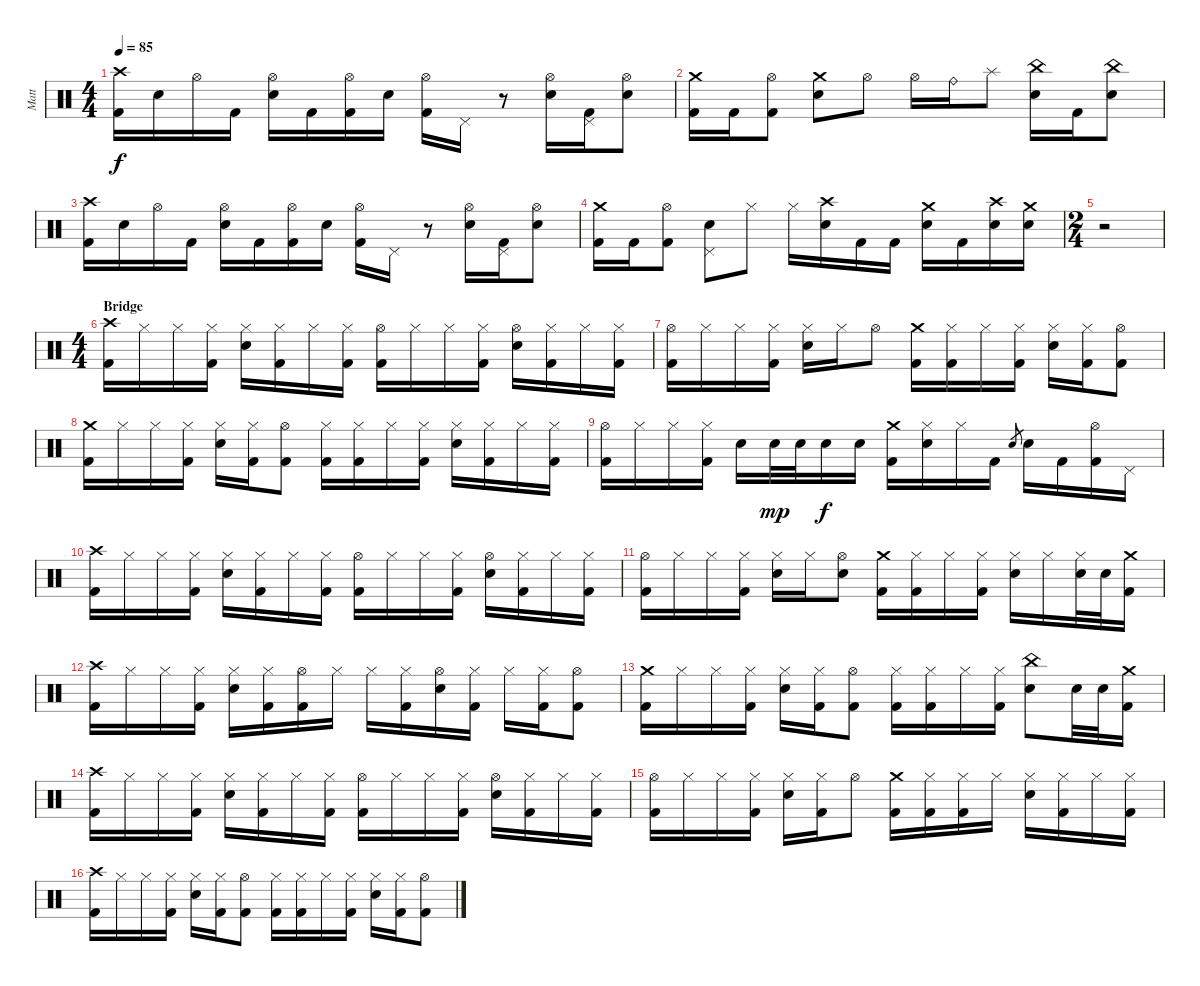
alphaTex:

\track ("Matt" "Matt") {instrument percussion}
\staff {score}
\articulation defaults
\ts (4 4)
\tempo 85
\clef neutral
\ks c
("Crash high (hit)" "Kick (hit) 2").16{dy f} "Electric Snare (hit)".16 "Hi-Hat (open)".16 "Kick (hit) 2".16 ("Hi-Hat (open)" "Electric Snare (hit)").16 "Kick (hit) 2".16 ("Hi-Hat (open)" "Kick (hit) 2").16 "Electric Snare (hit)".16 ("Hi-Hat (open)" "Kick (hit) 2").16 "Pedal Hi-Hat (hit)".16 r.8 ("Hi-Hat (open)" "Electric Snare (hit)").16 ("Pedal Hi-Hat (hit)" "Kick (hit) 2").16 ("Hi-Hat (open)" "Electric Snare (hit)").8 |
("Crash medium (hit)" "Kick (hit) 2").16 "Kick (hit) 2".16 ("Hi-Hat (open)" "Kick (hit) 2").8 ("Crash medium (hit)" "Electric Snare (hit)").8 "Hi-Hat (open)".8 "Hi-Hat (open)".16 "Ride (bell)".16 "Splash (hit)".8 ("China (hit)" "Electric Snare (hit)").16 "Kick (hit) 2".16 ("China (hit)" "Electric Snare (hit)").8 |
("Crash high (hit)" "Kick (hit) 2").16 "Electric Snare (hit)".16 "Hi-Hat (open)".16 "Kick (hit) 2".16 ("Hi-Hat (open)" "Electric Snare (hit)").16 "Kick (hit) 2".16 ("Hi-Hat (open)" "Kick (hit) 2").16 "Electric Snare (hit)".16 ("Hi-Hat (open)" "Kick (hit) 2").16 "Pedal Hi-Hat (hit)".16 r.8 ("Hi-Hat (open)" "Electric Snare (hit)").16 ("Pedal Hi-Hat (hit)" "Kick (hit) 2").16 ("Hi-Hat (open)" "Electric Snare (hit)").8 |
("Crash medium (hit)" "Kick (hit) 2").16 "Kick (hit) 2".16 ("Hi-Hat (open)" "Kick (hit) 2").8 ("Pedal Hi-Hat (hit)" "Electric Snare (hit)").8 "Hi-Hat (closed)".8 "Hi-Hat (closed)".16 ("Crash high (hit)" "Electric Snare (hit)").16 "Kick (hit) 2".16 "Kick (hit) 2".16 ("Crash medium (hit)" "Electric Snare (hit)").16 "Kick (hit) 2".16 ("Crash high (hit)" "Electric Snare (hit)").16 ("Crash medium (hit)" "Electric Snare (hit)").16 |
\ts (2 4)
r.2 |
\ts (4 4)
\section ("" "Bridge")
("Crash high (hit)" "Kick (hit) 2").16 "Hi-Hat (closed)".16 "Hi-Hat (closed)".16 ("Hi-Hat (closed)" "Kick (hit) 2").16 ("Hi-Hat (closed)" "Electric Snare (hit)").16 ("Hi-Hat (closed)" "Kick (hit) 2").16 "Hi-Hat (closed)".16 ("Hi-Hat (closed)" "Kick (hit) 2").16 ("Hi-Hat (open)" "Kick (hit) 2").16 "Hi-Hat (closed)".16 "Hi-Hat (closed)".16 ("Hi-Hat (closed)" "Kick (hit) 2").16 ("Hi-Hat (open)" "Electric Snare (hit)").16 ("Hi-Hat (closed)" "Kick (hit) 2").16 "Hi-Hat (closed)".16 ("Hi-Hat (closed)" "Kick (hit) 2").16 |
("Hi-Hat (open)" "Kick (hit) 2").16 "Hi-Hat (closed)".16 "Hi-Hat (closed)".16 ("Hi-Hat (closed)" "Kick (hit) 2").16 ("Hi-Hat (closed)" "Electric Snare (hit)").16 "Hi-Hat (closed)".16 "Hi-Hat (open)".8 ("Crash medium (hit)" "Kick (hit) 2").16 ("Hi-Hat (closed)" "Kick (hit) 2").16 "Hi-Hat (closed)".16 ("Hi-Hat (closed)" "Kick (hit) 2").16 ("Hi-Hat (closed)" "Electric Snare (hit)").16 ("Hi-Hat (closed)" "Kick (hit) 2").16 ("Hi-Hat (open)" "Kick (hit) 2").8 |
("Crash medium (hit)" "Kick (hit) 2").16 "Hi-Hat (closed)".16 "Hi-Hat (closed)".16 ("Hi-Hat (closed)" "Kick (hit) 2").16 ("Hi-Hat (closed)" "Electric Snare (hit)").16 ("Hi-Hat (closed)" "Kick (hit) 2").16 ("Hi-Hat (open)" "Kick (hit) 2").8 ("Hi-Hat (closed)" "Kick (hit) 2").16 ("Hi-Hat (closed)" "Kick (hit) 2").16 "Hi-Hat (closed)".16 ("Hi-Hat (closed)" "Kick (hit) 2").16 ("Hi-Hat (closed)" "Electric Snare (hit)").16 ("Hi-Hat (closed)" "Kick (hit) 2").16 "Hi-Hat (closed)".16 ("Hi-Hat (closed)" "Kick (hit) 2").16 |
("Hi-Hat (open)" "Kick (hit) 2").16 "Hi-Hat (closed)".16 "Hi-Hat (closed)".16 ("Hi-Hat (closed)" "Kick (hit) 2").16 "Electric Snare (hit)".16 "Electric Snare (hit)".32{dy mp} "Electric Snare (hit)".32 "Electric Snare (hit)".16{dy f} "Electric Snare (hit)".16 ("Crash medium (hit)" "Kick (hit) 2").16 ("Hi-Hat (closed)" "Electric Snare (hit)").16 "Hi-Hat (closed)".16 "Kick (hit) 2".16 "Electric Snare (hit)".8{gr} "Electric Snare (hit)".16 "Kick (hit) 2".16 ("Hi-Hat (open)" "Kick (hit) 2").16 "Pedal Hi-Hat (hit)".16 |
("Crash high (hit)" "Kick (hit) 2").16 "Hi-Hat (closed)".16 "Hi-Hat (closed)".16 ("Hi-Hat (closed)" "Kick (hit) 2").16 ("Hi-Hat (closed)" "Electric Snare (hit)").16 ("Hi-Hat (closed)" "Kick (hit) 2").16 "Hi-Hat (closed)".16 ("Hi-Hat (closed)" "Kick (hit) 2").16 ("Hi-Hat (open)" "Kick (hit) 2").16 "Hi-Hat (closed)".16 "Hi-Hat (closed)".16 ("Hi-Hat (closed)" "Kick (hit) 2").16 ("Hi-Hat (open)" "Electric Snare (hit)").16 ("Hi-Hat (closed)" "Kick (hit) 2").16 "Hi-Hat (closed)".16 ("Hi-Hat (closed)" "Kick (hit) 2").16 |
("Hi-Hat (open)" "Kick (hit) 2").16 "Hi-Hat (closed)".16 "Hi-Hat (closed)".16 ("Hi-Hat (closed)" "Kick (hit) 2").16 ("Hi-Hat (closed)" "Electric Snare (hit)").16 "Hi-Hat (closed)".16 ("Hi-Hat (open)" "Electric Snare (hit)").8 ("Crash medium (hit)" "Kick (hit) 2").16 ("Hi-Hat (closed)" "Kick (hit) 2").16 "Hi-Hat (closed)".16 ("Hi-Hat (closed)" "Kick (hit) 2").16 ("Hi-Hat (closed)" "Electric Snare (hit)").16 "Hi-Hat (closed)".16 ("Hi-Hat (closed)" "Electric Snare (hit)").32 "Electric Snare (hit)".32 ("Crash medium (hit)" "Kick (hit) 2").16 |
("Crash high (hit)" "Kick (hit) 2").16 "Hi-Hat (closed)".16 "Hi-Hat (closed)".16 ("Hi-Hat (closed)" "Kick (hit) 2").16 ("Hi-Hat (closed)" "Electric Snare (hit)").16 ("Hi-Hat (closed)" "Kick (hit) 2").16 ("Hi-Hat (open)" "Kick (hit) 2").16 "Hi-Hat (closed)".16 "Hi-Hat (closed)".16 ("Hi-Hat (closed)" "Kick (hit) 2").16 ("Hi-Hat (open)" "Electric Snare (hit)").16 ("Hi-Hat (closed)" "Kick (hit) 2").16 "Hi-Hat (closed)".16 ("Hi-Hat (closed)" "Kick (hit) 2").16 ("Hi-Hat (open)" "Kick (hit) 2").8 |
("Crash medium (hit)" "Kick (hit) 2").16 "Hi-Hat (closed)".16 "Hi-Hat (closed)".16 ("Hi-Hat (closed)" "Kick (hit) 2").16 ("Hi-Hat (closed)" "Electric Snare (hit)").16 ("Hi-Hat (closed)" "Kick (hit) 2").16 ("Hi-Hat (open)" "Kick (hit) 2").8 ("Hi-Hat (closed)" "Kick (hit) 2").16 ("Hi-Hat (closed)" "Kick (hit) 2").16 "Hi-Hat (closed)".16 ("Hi-Hat (closed)" "Kick (hit) 2").16 ("China (hit)" "Electric Snare (hit)").8 "Electric Snare (hit)".32 "Electric Snare (hit)".32 ("Crash medium (hit)" "Kick (hit) 2").16 |
("Crash high (hit)" "Kick (hit) 2").16 "Hi-Hat (closed)".16 "Hi-Hat (closed)".16 ("Hi-Hat (closed)" "Kick (hit) 2").16 ("Hi-Hat (closed)" "Electric Snare (hit)").16 ("Hi-Hat (closed)" "Kick (hit) 2").16 "Hi-Hat (closed)".16 ("Hi-Hat (closed)" "Kick (hit) 2").16 ("Hi-Hat (open)" "Kick (hit) 2").16 "Hi-Hat (closed)".16 "Hi-Hat (closed)".16 ("Hi-Hat (closed)" "Kick (hit) 2").16 ("Hi-Hat (open)" "Electric Snare (hit)").16 ("Hi-Hat (closed)" "Kick (hit) 2").16 "Hi-Hat (closed)".16 ("Hi-Hat (closed)" "Kick (hit) 2").16 |
("Hi-Hat (open)" "Kick (hit) 2").16 "Hi-Hat (closed)".16 "Hi-Hat (closed)".16 ("Hi-Hat (closed)" "Kick (hit) 2").16 ("Hi-Hat (closed)" "Electric Snare (hit)").16 ("Hi-Hat (closed)" "Kick (hit) 2").16 "Hi-Hat (open)".8 ("Crash medium (hit)" "Kick (hit) 2").16 ("Hi-Hat (closed)" "Kick (hit) 2").16 ("Hi-Hat (closed)" "Kick (hit) 2").16 "Hi-Hat (closed)".16 ("Hi-Hat (closed)" "Electric Snare (hit)").16 ("Hi-Hat (closed)" "Kick (hit) 2").16 "Hi-Hat (closed)".16 ("Hi-Hat (closed)" "Kick (hit) 2").16 |
("Crash high (hit)" "Kick (hit) 2").16 "Hi-Hat (closed)".16 "Hi-Hat (closed)".16 ("Hi-Hat (closed)" "Kick (hit) 2").16 ("Hi-Hat (closed)" "Electric Snare (hit)").16 ("Hi-Hat (closed)" "Kick (hit) 2").16 ("Hi-Hat (open)" "Kick (hit) 2").8 ("Hi-Hat (closed)" "Kick (hit) 2").16 ("Hi-Hat (closed)" "Kick (hit) 2").16 "Hi-Hat (closed)".16 ("Hi-Hat (closed)" "Kick (hit) 2").16 ("Hi-Hat (closed)" "Electric Snare (hit)").16 ("Hi-Hat (closed)" "Kick (hit) 2").16 ("Hi-Hat (open)" "Kick (hit) 2").8
